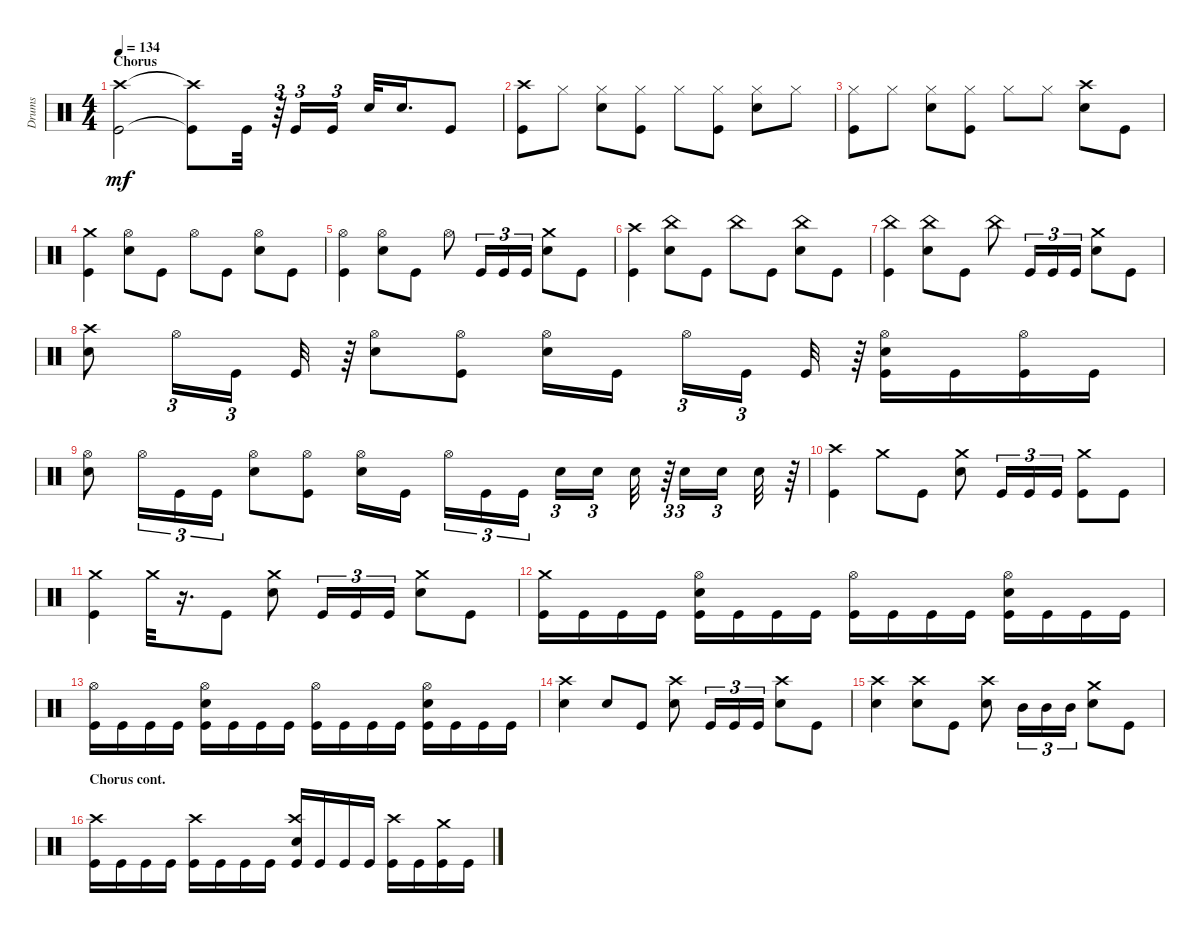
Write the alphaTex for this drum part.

\track ("Drums" "Drums") {instrument percussion}
\staff {score}
\articulation defaults
\ts (4 4)
\section ("" "Chorus")
\tempo 134
\clef neutral
\ks aminor
("Kick (hit)"{t} "Crash high (hit)"{t}).2{dy mf} ("Kick (hit)"{t} "Crash high (hit)"{t}).8 "Kick (hit)".32 r.64{tu (3 2)} "Kick (hit)".16{tu (3 2)} "Kick (hit)".16{tu (3 2)} "Snare (hit) 2".32 "Snare (hit) 2".16{d} "Kick (hit)".8 |
("Crash high (hit)" "Kick (hit)").8 "Hi-Hat (closed)".8 ("Hi-Hat (closed)" "Snare (hit) 2").8 ("Kick (hit)" "Hi-Hat (closed)").8 "Hi-Hat (closed)".8 ("Hi-Hat (closed)" "Kick (hit)").8 ("Hi-Hat (closed)" "Snare (hit) 2").8 "Hi-Hat (closed)".8 |
("Hi-Hat (closed)" "Kick (hit)").8 "Hi-Hat (closed)".8 ("Hi-Hat (closed)" "Snare (hit) 2").8 ("Hi-Hat (closed)" "Kick (hit)").8 "Hi-Hat (closed)".8 "Hi-Hat (closed)".8 ("Snare (hit) 2" "Crash high (hit)").8 "Kick (hit)".8 |
("Crash medium (hit)" "Kick (hit)").4 ("Hi-Hat (open)" "Snare (hit) 2").8 "Kick (hit)".8 "Hi-Hat (open)".8 "Kick (hit)".8 ("Hi-Hat (open)" "Snare (hit) 2").8 "Kick (hit)".8 |
("Kick (hit)" "Hi-Hat (open)").4 ("Hi-Hat (open)" "Snare (hit) 2").8 "Kick (hit)".8 "Hi-Hat (open)".8 "Kick (hit)".16{tu (3 2)} "Kick (hit)".16{tu (3 2)} "Kick (hit)".16{tu (3 2)} ("Crash medium (hit)" "Snare (hit) 2").8 "Kick (hit)".8 |
("Kick (hit)" "Crash high (hit)").4 ("China (hit)" "Snare (hit) 2").8 "Kick (hit)".8 "China (hit)".8 "Kick (hit)".8 ("China (hit)" "Snare (hit) 2").8 "Kick (hit)".8 |
("China (hit)" "Kick (hit)").4 ("Snare (hit) 2" "China (hit)").8 "Kick (hit)".8 "China (hit)".8 "Kick (hit)".16{tu (3 2)} "Kick (hit)".16{tu (3 2)} "Kick (hit)".16{tu (3 2)} ("Snare (hit) 2" "Crash medium (hit)").8 "Kick (hit)".8 |
("Snare (hit) 2" "Crash high (hit)").8 "Hi-Hat (open)".16{tu (3 2)} "Kick (hit)".16{tu (3 2)} "Kick (hit)".32 r.64{tu (3 2)} ("Snare (hit) 2" "Hi-Hat (open)").8 ("Kick (hit)" "Hi-Hat (open)").8 ("Snare (hit) 2" "Hi-Hat (open)").16 "Kick (hit)".16 "Hi-Hat (open)".16{tu (3 2)} "Kick (hit)".16{tu (3 2)} "Kick (hit)".32 r.64{tu (3 2)} ("Snare (hit) 2" "Kick (hit)" "Hi-Hat (open)").16 "Kick (hit)".16 ("Kick (hit)" "Hi-Hat (open)").16 "Kick (hit)".16 |
("Snare (hit) 2" "Hi-Hat (open)").8 "Hi-Hat (open)".16{tu (3 2)} "Kick (hit)".16{tu (3 2)} "Kick (hit)".16{tu (3 2)} ("Hi-Hat (open)" "Snare (hit) 2").8 ("Kick (hit)" "Hi-Hat (open)").8 ("Hi-Hat (open)" "Snare (hit) 2").16 "Kick (hit)".16 "Hi-Hat (open)".16{tu (3 2)} "Kick (hit)".16{tu (3 2)} "Kick (hit)".16{tu (3 2)} "Snare (hit) 2".16{tu (3 2)} "Snare (hit) 2".16{tu (3 2)} "Snare (hit) 2".32 r.64{tu (3 2)} "Snare (hit) 2".16{tu (3 2)} "Snare (hit) 2".16{tu (3 2)} "Snare (hit) 2".32 r.64{tu (3 2)} |
("Kick (hit)" "Crash high (hit)").4 "Crash medium (hit)".8 "Kick (hit)".8 ("Crash medium (hit)" "Snare (hit) 2").8 "Kick (hit)".16{tu (3 2)} "Kick (hit)".16{tu (3 2)} "Kick (hit)".16{tu (3 2)} ("Crash medium (hit)" "Kick (hit)").8 "Kick (hit)".8 |
("Crash medium (hit)" "Kick (hit)").4 "Crash medium (hit)".32 r.16{d} "Kick (hit)".8 ("Snare (hit) 2" "Crash medium (hit)").8 "Kick (hit)".16{tu (3 2)} "Kick (hit)".16{tu (3 2)} "Kick (hit)".16{tu (3 2)} ("Crash medium (hit)" "Snare (hit) 2").8 "Kick (hit)".8 |
("Kick (hit)" "Crash medium (hit)").16 "Kick (hit)".16 "Kick (hit)".16 "Kick (hit)".16 ("Kick (hit)" "Snare (hit) 2" "Hi-Hat (open)").16 "Kick (hit)".16 "Kick (hit)".16 "Kick (hit)".16 ("Kick (hit)" "Hi-Hat (open)").16 "Kick (hit)".16 "Kick (hit)".16 "Kick (hit)".16 ("Snare (hit) 2" "Hi-Hat (open)" "Kick (hit)").16 "Kick (hit)".16 "Kick (hit)".16 "Kick (hit)".16 |
("Kick (hit)" "Hi-Hat (open)").16 "Kick (hit)".16 "Kick (hit)".16 "Kick (hit)".16 ("Kick (hit)" "Snare (hit) 2" "Hi-Hat (open)").16 "Kick (hit)".16 "Kick (hit)".16 "Kick (hit)".16 ("Kick (hit)" "Hi-Hat (open)").16 "Kick (hit)".16 "Kick (hit)".16 "Kick (hit)".16 ("Snare (hit) 2" "Hi-Hat (open)" "Kick (hit)").16 "Kick (hit)".16 "Kick (hit)".16 "Kick (hit)".16 |
("Snare (hit) 2" "Crash high (hit)").4 "Snare (hit) 2".8 "Kick (hit)".8 ("Snare (hit) 2" "Crash high (hit)").8 "Kick (hit)".16{tu (3 2)} "Kick (hit)".16{tu (3 2)} "Kick (hit)".16{tu (3 2)} ("Crash high (hit)" "Snare (hit) 2").8 "Kick (hit)".8 |
("Snare (hit) 2" "Crash high (hit)").4 ("Crash high (hit)" "Snare (hit) 2").8 "Kick (hit)".8 ("Crash high (hit)" "Snare (hit) 2").8 "Mid Tom (hit)".16{tu (3 2)} "Mid Tom (hit)".16{tu (3 2)} "Mid Tom (hit)".16{tu (3 2)} ("Crash medium (hit)" "Snare (hit) 2").8 "Kick (hit)".8 |
\section ("" "Chorus cont.")
("Crash high (hit)" "Kick (hit)").16 "Kick (hit)".16 "Kick (hit)".16 "Kick (hit)".16 ("Crash high (hit)" "Kick (hit)").16 "Kick (hit)".16 "Kick (hit)".16 "Kick (hit)".16 ("Kick (hit)" "Snare (hit) 2" "Crash high (hit)").16 "Kick (hit)".16 "Kick (hit)".16 "Kick (hit)".16 ("Crash high (hit)" "Kick (hit)").16 "Kick (hit)".16 ("Kick (hit)" "Crash medium (hit)").16 "Kick (hit)".16
